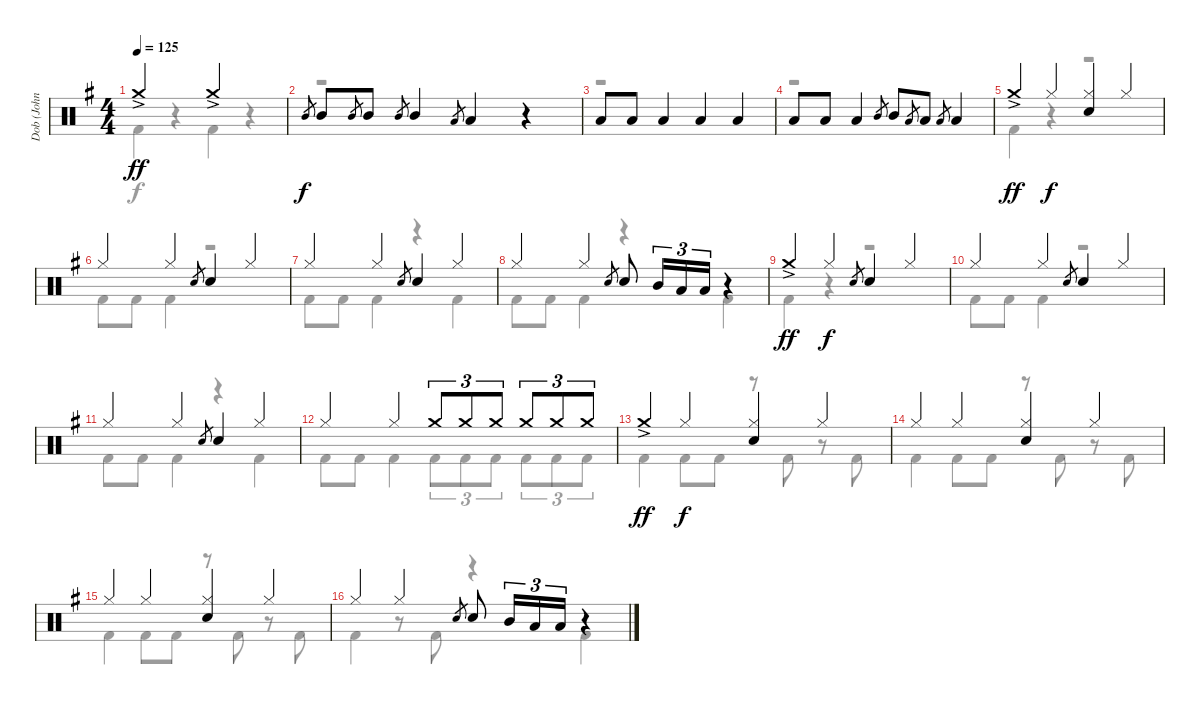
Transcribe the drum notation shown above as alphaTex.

\track ("Dob (John Macaluso)" "Dob (John ") {instrument percussion}
\staff {score}
\articulation defaults
\voice
\ts (4 4)
\tempo 125
\clef neutral
\ks g "Crash medium (hit)"{ac}.2{dy ff} "Crash medium (hit)"{ac}.2
|
"Mid Tom (hit)".8{gr dy f} "Mid Tom (hit)".8 "Mid Tom (hit)".8{gr} "Mid Tom (hit)".8 "Mid Tom (hit)".8{gr} "Mid Tom (hit)".4 "Low Tom (hit)".8{gr} "Low Tom (hit)".4 r.4 |
"Low Tom (hit)".8 "Low Tom (hit)".8 "Low Tom (hit)".4 "Low Tom (hit)".4 "Low Tom (hit)".4 |
"Low Tom (hit)".8 "Low Tom (hit)".8 "Low Tom (hit)".4 "Mid Tom (hit)".8{gr} "Mid Tom (hit)".8 "Low Tom (hit)".8{gr} "Low Tom (hit)".8 "Low Tom (hit)".8{gr} "Low Tom (hit)".4 |
"Crash medium (hit)"{ac}.4{dy ff} "Hi-Hat (closed)".4{dy f} ("Hi-Hat (closed)" "Electric Snare (hit)").4 "Hi-Hat (closed)".4 |
"Hi-Hat (closed)".4 "Hi-Hat (closed)".4 "Electric Snare (hit)".8{gr} "Electric Snare (hit)".4 "Hi-Hat (closed)".4 |
"Hi-Hat (closed)".4 "Hi-Hat (closed)".4 "Electric Snare (hit)".8{gr} "Electric Snare (hit)".4 "Hi-Hat (closed)".4 |
"Hi-Hat (closed)".4 "Hi-Hat (closed)".4 "Electric Snare (hit)".8{gr} "Electric Snare (hit)".8 "Mid Tom (hit)".16{tu (3 2)} "Low Tom (hit)".16{tu (3 2)} "Low Tom (hit)".16{tu (3 2)} r.4 |
"Crash medium (hit)"{ac}.4{dy ff} "Hi-Hat (closed)".4{dy f} "Electric Snare (hit)".8{gr} "Electric Snare (hit)".4 "Hi-Hat (closed)".4 |
"Hi-Hat (closed)".4 "Hi-Hat (closed)".4 "Electric Snare (hit)".8{gr} "Electric Snare (hit)".4 "Hi-Hat (closed)".4 |
"Hi-Hat (closed)".4 "Hi-Hat (closed)".4 "Electric Snare (hit)".8{gr} "Electric Snare (hit)".4 "Hi-Hat (closed)".4 |
"Hi-Hat (closed)".4 "Hi-Hat (closed)".4 "Crash medium (hit)".8{tu (3 2)} "Crash medium (hit)".8{tu (3 2)} "Crash medium (hit)".8{tu (3 2)} "Crash medium (hit)".8{tu (3 2)} "Crash medium (hit)".8{tu (3 2)} "Crash medium (hit)".8{tu (3 2)} |
"Crash medium (hit)"{ac}.4{dy ff} "Hi-Hat (closed)".4{dy f} ("Hi-Hat (closed)" "Electric Snare (hit)").4 "Hi-Hat (closed)".4 |
"Hi-Hat (closed)".4 "Hi-Hat (closed)".4 ("Hi-Hat (closed)" "Electric Snare (hit)").4 "Hi-Hat (closed)".4 |
"Hi-Hat (closed)".4 "Hi-Hat (closed)".4 ("Hi-Hat (closed)" "Electric Snare (hit)").4 "Hi-Hat (closed)".4 |
"Hi-Hat (closed)".4 "Hi-Hat (closed)".4 "Electric Snare (hit)".8{gr} "Electric Snare (hit)".8 "Mid Tom (hit)".16{tu (3 2)} "Low Tom (hit)".16{tu (3 2)} "Low Tom (hit)".16{tu (3 2)} r.4
\voice
\clef neutral
\ottava regular
\simile none
\ks g "Kick (hit) 2".4{dy f}
r.4 "Kick (hit) 2".4 r.4 |
r.1 |
r.1 |
r.1 |
"Kick (hit) 2".4 r.4 r.2 |
"Kick (hit) 2".8 "Kick (hit) 2".8 "Kick (hit) 2".4 r.2 |
"Kick (hit) 2".8 "Kick (hit) 2".8 "Kick (hit) 2".4 r.4 "Kick (hit) 2".4 |
"Kick (hit) 2".8 "Kick (hit) 2".8 "Kick (hit) 2".4 r.4 "Kick (hit) 2".4 |
"Kick (hit) 2".4 r.4 r.2 |
"Kick (hit) 2".8 "Kick (hit) 2".8 "Kick (hit) 2".4 r.2 |
"Kick (hit) 2".8 "Kick (hit) 2".8 "Kick (hit) 2".4 r.4 "Kick (hit) 2".4 |
"Kick (hit) 2".8 "Kick (hit) 2".8 "Kick (hit) 2".4 "Kick (hit) 2".8{tu (3 2)} "Kick (hit) 2".8{tu (3 2)} "Kick (hit) 2".8{tu (3 2)} "Kick (hit) 2".8{tu (3 2)} "Kick (hit) 2".8{tu (3 2)} "Kick (hit) 2".8{tu (3 2)} |
"Kick (hit) 2".4 "Kick (hit) 2".8 "Kick (hit) 2".8 r.8 "Kick (hit) 2".8 r.8 "Kick (hit) 2".8 |
"Kick (hit) 2".4 "Kick (hit) 2".8 "Kick (hit) 2".8 r.8 "Kick (hit) 2".8 r.8 "Kick (hit) 2".8 |
"Kick (hit) 2".4 "Kick (hit) 2".8 "Kick (hit) 2".8 r.8 "Kick (hit) 2".8 r.8 "Kick (hit) 2".8 |
"Kick (hit) 2".4 r.8 "Kick (hit) 2".8 r.4 "Kick (hit) 2".4
